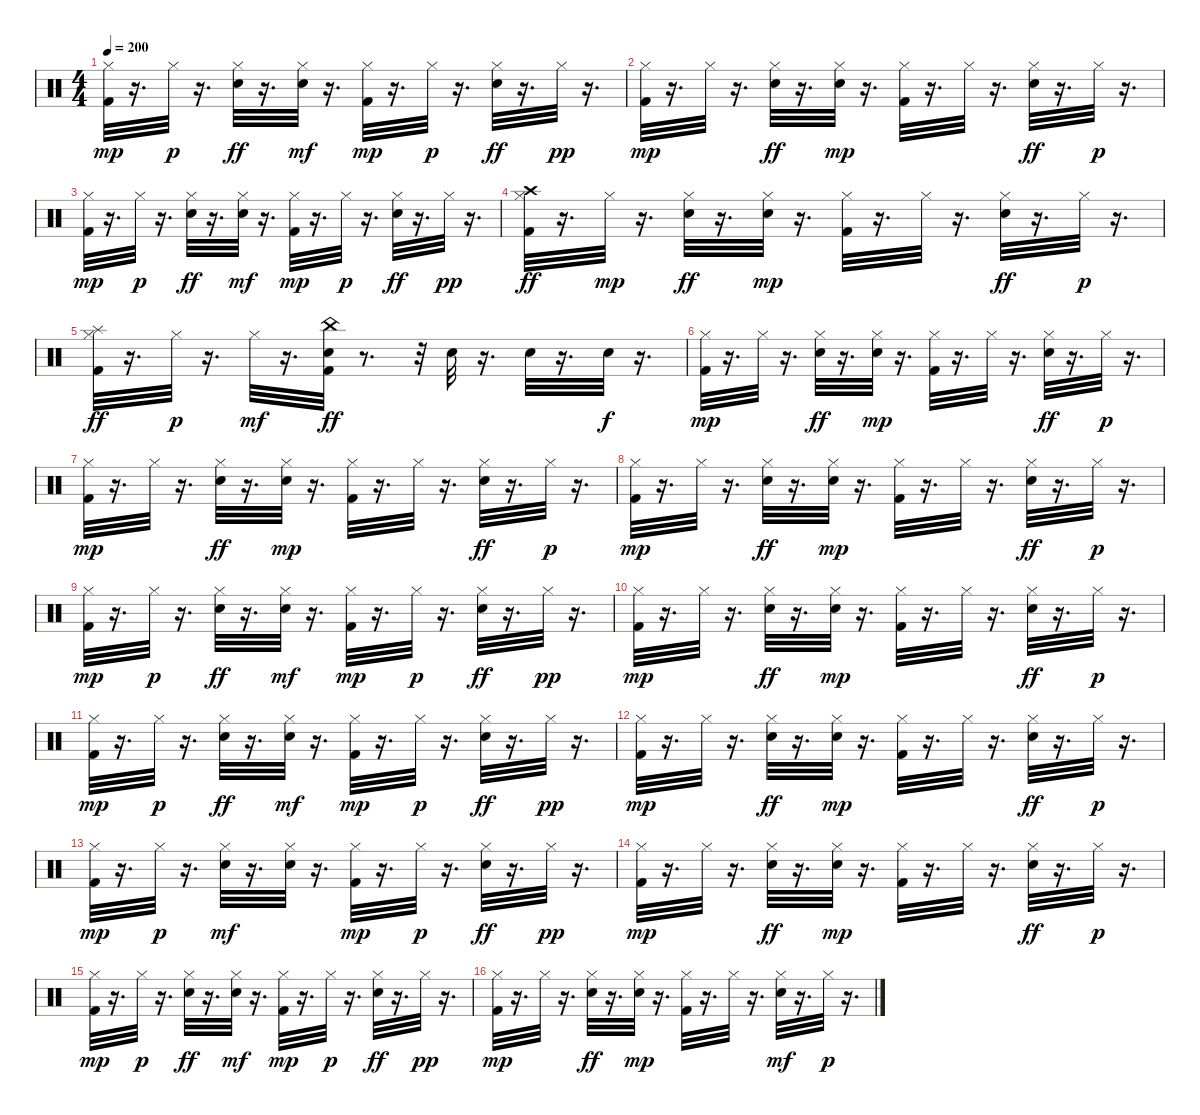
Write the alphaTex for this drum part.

\track "" {instrument percussion}
\staff {score}
\articulation defaults
\ts (4 4)
\tempo 200
\clef neutral
\ks c
("Kick (hit) 2" "Hi-Hat (closed)").32{dy mp} r.16{d} "Hi-Hat (closed)".32{dy p} r.16{d} ("Hi-Hat (closed)" "Electric Snare (hit)").32{dy ff} r.16{d} ("Hi-Hat (closed)" "Electric Snare (hit)").32{dy mf} r.16{d} ("Kick (hit) 2" "Hi-Hat (closed)").32{dy mp} r.16{d} "Hi-Hat (closed)".32{dy p} r.16{d} ("Hi-Hat (closed)" "Electric Snare (hit)").32{dy ff} r.16{d} "Hi-Hat (closed)".32{dy pp} r.16{d} |
("Kick (hit) 2" "Hi-Hat (closed)").32{dy mp} r.16{d} "Hi-Hat (closed)".32 r.16{d} ("Hi-Hat (closed)" "Electric Snare (hit)").32{dy ff} r.16{d} ("Hi-Hat (closed)" "Electric Snare (hit)").32{dy mp} r.16{d} ("Kick (hit) 2" "Hi-Hat (closed)").32 r.16{d} "Hi-Hat (closed)".32 r.16{d} ("Hi-Hat (closed)" "Electric Snare (hit)").32{dy ff} r.16{d} "Hi-Hat (closed)".32{dy p} r.16{d} |
("Kick (hit) 2" "Hi-Hat (closed)").32{dy mp} r.16{d} "Hi-Hat (closed)".32{dy p} r.16{d} ("Hi-Hat (closed)" "Electric Snare (hit)").32{dy ff} r.16{d} ("Hi-Hat (closed)" "Electric Snare (hit)").32{dy mf} r.16{d} ("Kick (hit) 2" "Hi-Hat (closed)").32{dy mp} r.16{d} "Hi-Hat (closed)".32{dy p} r.16{d} ("Hi-Hat (closed)" "Electric Snare (hit)").32{dy ff} r.16{d} "Hi-Hat (closed)".32{dy pp} r.16{d} |
("Kick (hit) 2" "Hi-Hat (closed)" "Crash high (hit)").32{dy ff} r.16{d} "Hi-Hat (closed)".32{dy mp} r.16{d} ("Hi-Hat (closed)" "Electric Snare (hit)").32{dy ff} r.16{d} ("Hi-Hat (closed)" "Electric Snare (hit)").32{dy mp} r.16{d} ("Kick (hit) 2" "Hi-Hat (closed)").32 r.16{d} "Hi-Hat (closed)".32 r.16{d} ("Hi-Hat (closed)" "Electric Snare (hit)").32{dy ff} r.16{d} "Hi-Hat (closed)".32{dy p} r.16{d} |
("Kick (hit) 2" "Hi-Hat (closed)" "Splash (hit)").32{dy ff} r.16{d} "Hi-Hat (closed)".32{dy p} r.16{d} "Hi-Hat (closed)".32{dy mf} r.16{d} ("Kick (hit) 2" "Electric Snare (hit)" "China (hit)").32{dy ff} r.8{d} r.32 "Electric Snare (hit)".32 r.16{d} "Electric Snare (hit)".32 r.16{d} "Electric Snare (hit)".32{dy f} r.16{d} |
("Kick (hit) 2" "Hi-Hat (closed)").32{dy mp} r.16{d} "Hi-Hat (closed)".32 r.16{d} ("Hi-Hat (closed)" "Electric Snare (hit)").32{dy ff} r.16{d} ("Hi-Hat (closed)" "Electric Snare (hit)").32{dy mp} r.16{d} ("Kick (hit) 2" "Hi-Hat (closed)").32 r.16{d} "Hi-Hat (closed)".32 r.16{d} ("Hi-Hat (closed)" "Electric Snare (hit)").32{dy ff} r.16{d} "Hi-Hat (closed)".32{dy p} r.16{d} |
("Kick (hit) 2" "Hi-Hat (closed)").32{dy mp} r.16{d} "Hi-Hat (closed)".32 r.16{d} ("Hi-Hat (closed)" "Electric Snare (hit)").32{dy ff} r.16{d} ("Hi-Hat (closed)" "Electric Snare (hit)").32{dy mp} r.16{d} ("Kick (hit) 2" "Hi-Hat (closed)").32 r.16{d} "Hi-Hat (closed)".32 r.16{d} ("Hi-Hat (closed)" "Electric Snare (hit)").32{dy ff} r.16{d} "Hi-Hat (closed)".32{dy p} r.16{d} |
("Kick (hit) 2" "Hi-Hat (closed)").32{dy mp} r.16{d} "Hi-Hat (closed)".32 r.16{d} ("Hi-Hat (closed)" "Electric Snare (hit)").32{dy ff} r.16{d} ("Hi-Hat (closed)" "Electric Snare (hit)").32{dy mp} r.16{d} ("Kick (hit) 2" "Hi-Hat (closed)").32 r.16{d} "Hi-Hat (closed)".32 r.16{d} ("Hi-Hat (closed)" "Electric Snare (hit)").32{dy ff} r.16{d} "Hi-Hat (closed)".32{dy p} r.16{d} |
("Kick (hit) 2" "Hi-Hat (closed)").32{dy mp} r.16{d} "Hi-Hat (closed)".32{dy p} r.16{d} ("Hi-Hat (closed)" "Electric Snare (hit)").32{dy ff} r.16{d} ("Hi-Hat (closed)" "Electric Snare (hit)").32{dy mf} r.16{d} ("Kick (hit) 2" "Hi-Hat (closed)").32{dy mp} r.16{d} "Hi-Hat (closed)".32{dy p} r.16{d} ("Hi-Hat (closed)" "Electric Snare (hit)").32{dy ff} r.16{d} "Hi-Hat (closed)".32{dy pp} r.16{d} |
("Kick (hit) 2" "Hi-Hat (closed)").32{dy mp} r.16{d} "Hi-Hat (closed)".32 r.16{d} ("Hi-Hat (closed)" "Electric Snare (hit)").32{dy ff} r.16{d} ("Hi-Hat (closed)" "Electric Snare (hit)").32{dy mp} r.16{d} ("Kick (hit) 2" "Hi-Hat (closed)").32 r.16{d} "Hi-Hat (closed)".32 r.16{d} ("Hi-Hat (closed)" "Electric Snare (hit)").32{dy ff} r.16{d} "Hi-Hat (closed)".32{dy p} r.16{d} |
("Kick (hit) 2" "Hi-Hat (closed)").32{dy mp} r.16{d} "Hi-Hat (closed)".32{dy p} r.16{d} ("Hi-Hat (closed)" "Electric Snare (hit)").32{dy ff} r.16{d} ("Hi-Hat (closed)" "Electric Snare (hit)").32{dy mf} r.16{d} ("Kick (hit) 2" "Hi-Hat (closed)").32{dy mp} r.16{d} "Hi-Hat (closed)".32{dy p} r.16{d} ("Hi-Hat (closed)" "Electric Snare (hit)").32{dy ff} r.16{d} "Hi-Hat (closed)".32{dy pp} r.16{d} |
("Kick (hit) 2" "Hi-Hat (closed)").32{dy mp} r.16{d} "Hi-Hat (closed)".32 r.16{d} ("Hi-Hat (closed)" "Electric Snare (hit)").32{dy ff} r.16{d} ("Hi-Hat (closed)" "Electric Snare (hit)").32{dy mp} r.16{d} ("Kick (hit) 2" "Hi-Hat (closed)").32 r.16{d} "Hi-Hat (closed)".32 r.16{d} ("Hi-Hat (closed)" "Electric Snare (hit)").32{dy ff} r.16{d} "Hi-Hat (closed)".32{dy p} r.16{d} |
("Kick (hit) 2" "Hi-Hat (closed)").32{dy mp} r.16{d} "Hi-Hat (closed)".32{dy p} r.16{d} ("Electric Snare (hit)" "Hi-Hat (closed)").32{dy mf} r.16{d} ("Hi-Hat (closed)" "Electric Snare (hit)").32 r.16{d} ("Kick (hit) 2" "Hi-Hat (closed)").32{dy mp} r.16{d} "Hi-Hat (closed)".32{dy p} r.16{d} ("Hi-Hat (closed)" "Electric Snare (hit)").32{dy ff} r.16{d} "Hi-Hat (closed)".32{dy pp} r.16{d} |
("Kick (hit) 2" "Hi-Hat (closed)").32{dy mp} r.16{d} "Hi-Hat (closed)".32 r.16{d} ("Hi-Hat (closed)" "Electric Snare (hit)").32{dy ff} r.16{d} ("Hi-Hat (closed)" "Electric Snare (hit)").32{dy mp} r.16{d} ("Kick (hit) 2" "Hi-Hat (closed)").32 r.16{d} "Hi-Hat (closed)".32 r.16{d} ("Hi-Hat (closed)" "Electric Snare (hit)").32{dy ff} r.16{d} "Hi-Hat (closed)".32{dy p} r.16{d} |
("Kick (hit) 2" "Hi-Hat (closed)").32{dy mp} r.16{d} "Hi-Hat (closed)".32{dy p} r.16{d} ("Hi-Hat (closed)" "Electric Snare (hit)").32{dy ff} r.16{d} ("Hi-Hat (closed)" "Electric Snare (hit)").32{dy mf} r.16{d} ("Kick (hit) 2" "Hi-Hat (closed)").32{dy mp} r.16{d} "Hi-Hat (closed)".32{dy p} r.16{d} ("Hi-Hat (closed)" "Electric Snare (hit)").32{dy ff} r.16{d} "Hi-Hat (closed)".32{dy pp} r.16{d} |
("Kick (hit) 2" "Hi-Hat (closed)").32{dy mp} r.16{d} "Hi-Hat (closed)".32 r.16{d} ("Hi-Hat (closed)" "Electric Snare (hit)").32{dy ff} r.16{d} ("Hi-Hat (closed)" "Electric Snare (hit)").32{dy mp} r.16{d} ("Kick (hit) 2" "Hi-Hat (closed)").32 r.16{d} "Hi-Hat (closed)".32 r.16{d} ("Electric Snare (hit)" "Hi-Hat (closed)").32{dy mf} r.16{d} "Hi-Hat (closed)".32{dy p} r.16{d}
